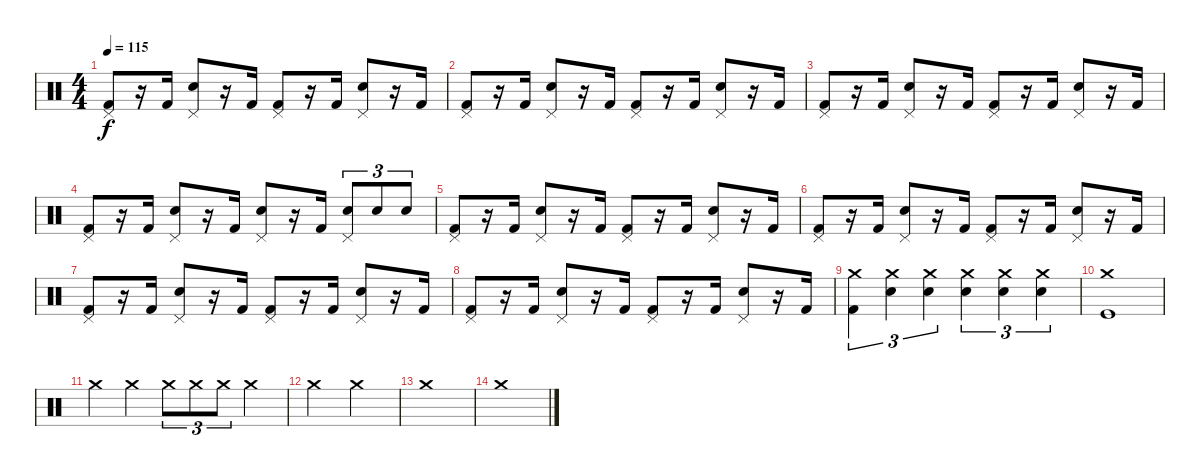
\track "" {instrument percussion}
\staff {score}
\articulation defaults
\ts (4 4)
\tempo 115
\clef neutral
\ks c
("Pedal Hi-Hat (hit)" "Kick (hit) 2").8{dy f} r.16 "Kick (hit) 2".16 ("Pedal Hi-Hat (hit)" "Snare (hit) 2").8 r.16 "Kick (hit) 2".16 ("Pedal Hi-Hat (hit)" "Kick (hit) 2").8 r.16 "Kick (hit) 2".16 ("Pedal Hi-Hat (hit)" "Snare (hit) 2").8 r.16 "Kick (hit) 2".16 |
("Pedal Hi-Hat (hit)" "Kick (hit) 2").8 r.16 "Kick (hit) 2".16 ("Pedal Hi-Hat (hit)" "Snare (hit) 2").8 r.16 "Kick (hit) 2".16 ("Pedal Hi-Hat (hit)" "Kick (hit) 2").8 r.16 "Kick (hit) 2".16 ("Pedal Hi-Hat (hit)" "Snare (hit) 2").8 r.16 "Kick (hit) 2".16 |
("Pedal Hi-Hat (hit)" "Kick (hit) 2").8 r.16 "Kick (hit) 2".16 ("Pedal Hi-Hat (hit)" "Snare (hit) 2").8 r.16 "Kick (hit) 2".16 ("Pedal Hi-Hat (hit)" "Kick (hit) 2").8 r.16 "Kick (hit) 2".16 ("Pedal Hi-Hat (hit)" "Snare (hit) 2").8 r.16 "Kick (hit) 2".16 |
("Pedal Hi-Hat (hit)" "Kick (hit) 2").8 r.16 "Kick (hit) 2".16 ("Pedal Hi-Hat (hit)" "Snare (hit) 2").8 r.16 "Kick (hit) 2".16 ("Pedal Hi-Hat (hit)" "Snare (hit) 2").8 r.16 "Kick (hit) 2".16 ("Pedal Hi-Hat (hit)" "Snare (hit) 2").8{tu (3 2)} "Snare (hit) 2".8{tu (3 2)} "Snare (hit) 2".8{tu (3 2)} |
("Pedal Hi-Hat (hit)" "Kick (hit) 2").8 r.16 "Kick (hit) 2".16 ("Pedal Hi-Hat (hit)" "Snare (hit) 2").8 r.16 "Kick (hit) 2".16 ("Pedal Hi-Hat (hit)" "Kick (hit) 2").8 r.16 "Kick (hit) 2".16 ("Pedal Hi-Hat (hit)" "Snare (hit) 2").8 r.16 "Kick (hit) 2".16 |
("Pedal Hi-Hat (hit)" "Kick (hit) 2").8 r.16 "Kick (hit) 2".16 ("Pedal Hi-Hat (hit)" "Snare (hit) 2").8 r.16 "Kick (hit) 2".16 ("Pedal Hi-Hat (hit)" "Kick (hit) 2").8 r.16 "Kick (hit) 2".16 ("Pedal Hi-Hat (hit)" "Snare (hit) 2").8 r.16 "Kick (hit) 2".16 |
("Pedal Hi-Hat (hit)" "Kick (hit) 2").8 r.16 "Kick (hit) 2".16 ("Pedal Hi-Hat (hit)" "Snare (hit) 2").8 r.16 "Kick (hit) 2".16 ("Pedal Hi-Hat (hit)" "Kick (hit) 2").8 r.16 "Kick (hit) 2".16 ("Pedal Hi-Hat (hit)" "Snare (hit) 2").8 r.16 "Kick (hit) 2".16 |
("Pedal Hi-Hat (hit)" "Kick (hit) 2").8 r.16 "Kick (hit) 2".16 ("Pedal Hi-Hat (hit)" "Snare (hit) 2").8 r.16 "Kick (hit) 2".16 ("Pedal Hi-Hat (hit)" "Kick (hit) 2").8 r.16 "Kick (hit) 2".16 ("Pedal Hi-Hat (hit)" "Snare (hit) 2").8 r.16 "Kick (hit) 2".16 |
("Crash medium (hit)" "Kick (hit) 2").4{tu (3 2)} ("Crash medium (hit)" "Snare (hit) 2").4{tu (3 2)} ("Crash medium (hit)" "Snare (hit) 2").4{tu (3 2)} ("Crash medium (hit)" "Snare (hit) 2").4{tu (3 2)} ("Crash medium (hit)" "Snare (hit) 2").4{tu (3 2)} ("Crash medium (hit)" "Snare (hit) 2").4{tu (3 2)} |
("Crash medium (hit)" "Kick (hit)").1 |
"Crash medium (hit)".4 "Crash medium (hit)".4 "Crash medium (hit)".8{tu (3 2)} "Crash medium (hit)".8{tu (3 2)} "Crash medium (hit)".8{tu (3 2)} "Crash medium (hit)".4 |
"Crash medium (hit)".2 "Crash medium (hit)".2 |
"Crash medium (hit)".1 |
"Crash medium (hit)".1
